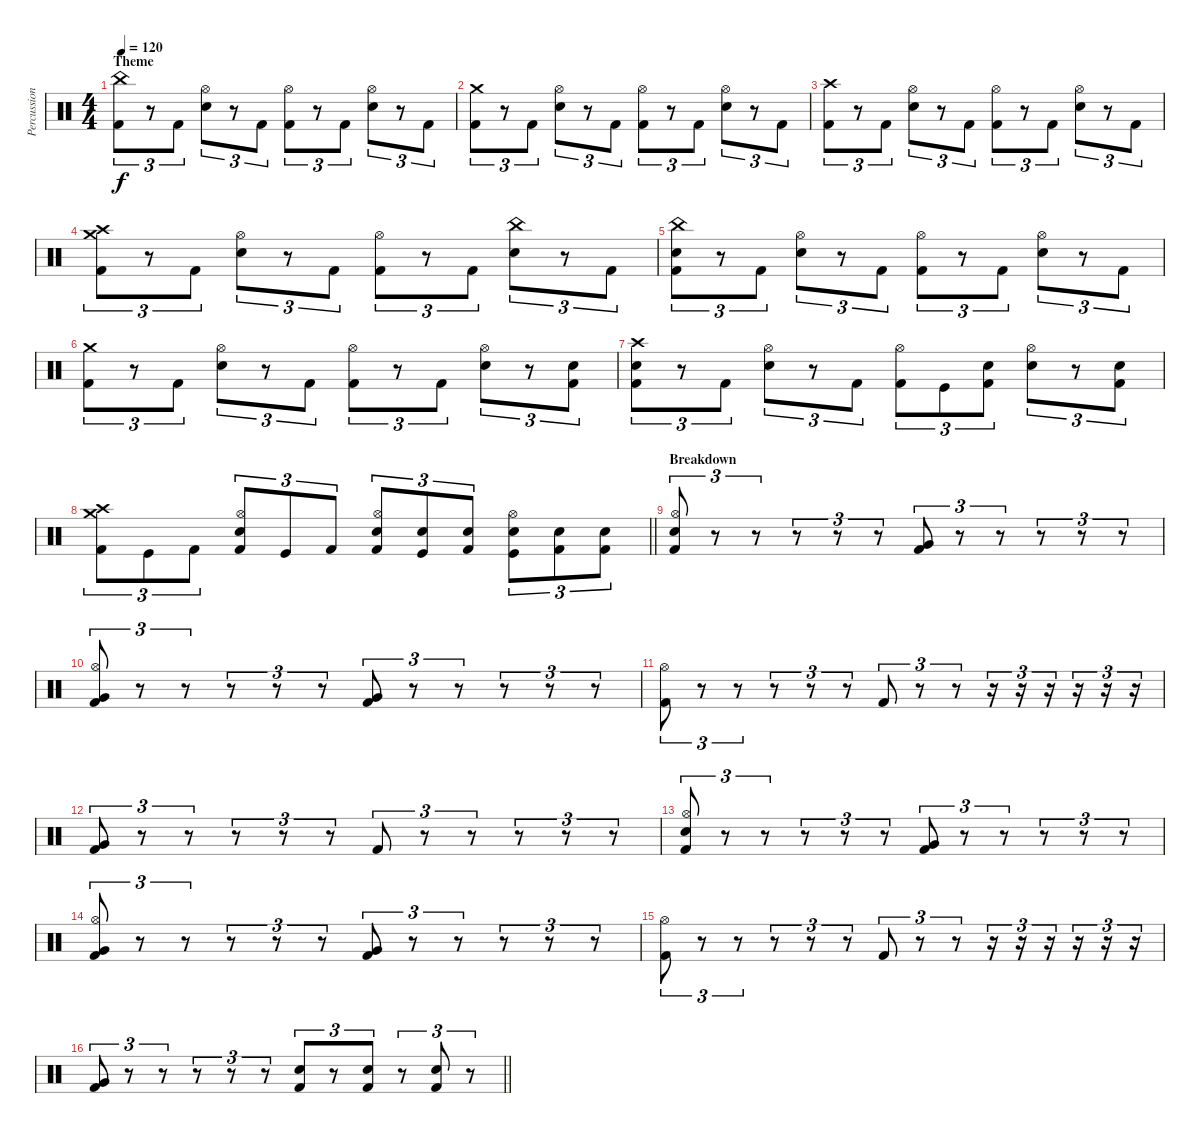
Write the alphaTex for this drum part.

\track ("Percussion" "Percussion") {instrument percussion}
\staff {score}
\articulation defaults
\ts (4 4)
\section ("" "Theme")
\tempo 120
\clef neutral
\ks c
("China (hit)" "Kick (hit) 2").8{tu (3 2) dy f} r.8{tu (3 2)} "Kick (hit) 2".8{tu (3 2)} ("Hi-Hat (open)" "Snare (hit) 2").8{tu (3 2)} r.8{tu (3 2)} "Kick (hit) 2".8{tu (3 2)} ("Hi-Hat (open)" "Kick (hit) 2").8{tu (3 2)} r.8{tu (3 2)} "Kick (hit) 2".8{tu (3 2)} ("Hi-Hat (open)" "Snare (hit) 2").8{tu (3 2)} r.8{tu (3 2)} "Kick (hit) 2".8{tu (3 2)} |
("Crash medium (hit)" "Kick (hit) 2").8{tu (3 2)} r.8{tu (3 2)} "Kick (hit) 2".8{tu (3 2)} ("Hi-Hat (open)" "Snare (hit) 2").8{tu (3 2)} r.8{tu (3 2)} "Kick (hit) 2".8{tu (3 2)} ("Hi-Hat (open)" "Kick (hit) 2").8{tu (3 2)} r.8{tu (3 2)} "Kick (hit) 2".8{tu (3 2)} ("Hi-Hat (open)" "Snare (hit) 2").8{tu (3 2)} r.8{tu (3 2)} "Kick (hit) 2".8{tu (3 2)} |
("Crash high (hit)" "Kick (hit) 2").8{tu (3 2)} r.8{tu (3 2)} "Kick (hit) 2".8{tu (3 2)} ("Hi-Hat (open)" "Snare (hit) 2").8{tu (3 2)} r.8{tu (3 2)} "Kick (hit) 2".8{tu (3 2)} ("Hi-Hat (open)" "Kick (hit) 2").8{tu (3 2)} r.8{tu (3 2)} "Kick (hit) 2".8{tu (3 2)} ("Hi-Hat (open)" "Snare (hit) 2").8{tu (3 2)} r.8{tu (3 2)} "Kick (hit) 2".8{tu (3 2)} |
("Crash medium (hit)" "Crash high (hit)" "Kick (hit) 2").8{tu (3 2)} r.8{tu (3 2)} "Kick (hit) 2".8{tu (3 2)} ("Hi-Hat (open)" "Snare (hit) 2").8{tu (3 2)} r.8{tu (3 2)} "Kick (hit) 2".8{tu (3 2)} ("Hi-Hat (open)" "Kick (hit) 2").8{tu (3 2)} r.8{tu (3 2)} "Kick (hit) 2".8{tu (3 2)} ("China (hit)" "Snare (hit) 2").8{tu (3 2)} r.8{tu (3 2)} "Kick (hit) 2".8{tu (3 2)} |
("China (hit)" "Snare (hit) 2" "Kick (hit) 2").8{tu (3 2)} r.8{tu (3 2)} "Kick (hit) 2".8{tu (3 2)} ("Hi-Hat (open)" "Snare (hit) 2").8{tu (3 2)} r.8{tu (3 2)} "Kick (hit) 2".8{tu (3 2)} ("Hi-Hat (open)" "Kick (hit) 2").8{tu (3 2)} r.8{tu (3 2)} "Kick (hit) 2".8{tu (3 2)} ("Hi-Hat (open)" "Snare (hit) 2").8{tu (3 2)} r.8{tu (3 2)} "Kick (hit) 2".8{tu (3 2)} |
("Crash medium (hit)" "Kick (hit) 2").8{tu (3 2)} r.8{tu (3 2)} "Kick (hit) 2".8{tu (3 2)} ("Hi-Hat (open)" "Snare (hit) 2").8{tu (3 2)} r.8{tu (3 2)} "Kick (hit) 2".8{tu (3 2)} ("Hi-Hat (open)" "Kick (hit) 2").8{tu (3 2)} r.8{tu (3 2)} "Kick (hit) 2".8{tu (3 2)} ("Hi-Hat (open)" "Snare (hit) 2").8{tu (3 2)} r.8{tu (3 2)} ("Snare (hit) 2" "Kick (hit) 2").8{tu (3 2)} |
("Crash high (hit)" "Snare (hit) 2" "Kick (hit) 2").8{tu (3 2)} r.8{tu (3 2)} "Kick (hit) 2".8{tu (3 2)} ("Hi-Hat (open)" "Snare (hit) 2").8{tu (3 2)} r.8{tu (3 2)} "Kick (hit) 2".8{tu (3 2)} ("Hi-Hat (open)" "Kick (hit) 2").8{tu (3 2)} "Kick (hit)".8{tu (3 2)} ("Snare (hit) 2" "Kick (hit) 2").8{tu (3 2)} ("Hi-Hat (open)" "Snare (hit) 2").8{tu (3 2)} r.8{tu (3 2)} ("Snare (hit) 2" "Kick (hit) 2").8{tu (3 2)} |
\barLineRight lightlight
("Crash medium (hit)" "Crash high (hit)" "Kick (hit) 2").8{tu (3 2)} "Kick (hit)".8{tu (3 2)} "Kick (hit) 2".8{tu (3 2)} ("Hi-Hat (open)" "Snare (hit) 2" "Kick (hit) 2").8{tu (3 2)} "Kick (hit)".8{tu (3 2)} "Kick (hit) 2".8{tu (3 2)} ("Hi-Hat (open)" "Snare (hit) 2" "Kick (hit) 2").8{tu (3 2)} ("Snare (hit) 2" "Kick (hit)").8{tu (3 2)} ("Snare (hit) 2" "Kick (hit) 2").8{tu (3 2)} ("Hi-Hat (open)" "Snare (hit) 2" "Kick (hit)").8{tu (3 2)} ("Snare (hit) 2" "Kick (hit) 2").8{tu (3 2)} ("Snare (hit) 2" "Kick (hit) 2").8{tu (3 2)} |
\section ("" "Breakdown")
("Hi-Hat (open)" "Snare (hit) 2" "Kick (hit) 2").8{tu (3 2)} r.8{tu (3 2)} r.8{tu (3 2)} r.8{tu (3 2)} r.8{tu (3 2)} r.8{tu (3 2)} ("Very Low Tom (hit)" "Kick (hit) 2").8{tu (3 2)} r.8{tu (3 2)} r.8{tu (3 2)} r.8{tu (3 2)} r.8{tu (3 2)} r.8{tu (3 2)} |
("Hi-Hat (open)" "Very Low Tom (hit)" "Kick (hit) 2").8{tu (3 2)} r.8{tu (3 2)} r.8{tu (3 2)} r.8{tu (3 2)} r.8{tu (3 2)} r.8{tu (3 2)} ("Very Low Tom (hit)" "Kick (hit) 2").8{tu (3 2)} r.8{tu (3 2)} r.8{tu (3 2)} r.8{tu (3 2)} r.8{tu (3 2)} r.8{tu (3 2)} |
("Hi-Hat (open)" "Kick (hit) 2").8{tu (3 2)} r.8{tu (3 2)} r.8{tu (3 2)} r.8{tu (3 2)} r.8{tu (3 2)} r.8{tu (3 2)} "Kick (hit) 2".8{tu (3 2)} r.8{tu (3 2)} r.8{tu (3 2)} r.16{tu (3 2)} r.16{tu (3 2)} r.16{tu (3 2)} r.16{tu (3 2)} r.16{tu (3 2)} r.16{tu (3 2)} |
("Very Low Tom (hit)" "Kick (hit) 2").8{tu (3 2)} r.8{tu (3 2)} r.8{tu (3 2)} r.8{tu (3 2)} r.8{tu (3 2)} r.8{tu (3 2)} "Kick (hit) 2".8{tu (3 2)} r.8{tu (3 2)} r.8{tu (3 2)} r.8{tu (3 2)} r.8{tu (3 2)} r.8{tu (3 2)} |
("Hi-Hat (open)" "Snare (hit) 2" "Kick (hit) 2").8{tu (3 2)} r.8{tu (3 2)} r.8{tu (3 2)} r.8{tu (3 2)} r.8{tu (3 2)} r.8{tu (3 2)} ("Very Low Tom (hit)" "Kick (hit) 2").8{tu (3 2)} r.8{tu (3 2)} r.8{tu (3 2)} r.8{tu (3 2)} r.8{tu (3 2)} r.8{tu (3 2)} |
("Hi-Hat (open)" "Very Low Tom (hit)" "Kick (hit) 2").8{tu (3 2)} r.8{tu (3 2)} r.8{tu (3 2)} r.8{tu (3 2)} r.8{tu (3 2)} r.8{tu (3 2)} ("Very Low Tom (hit)" "Kick (hit) 2").8{tu (3 2)} r.8{tu (3 2)} r.8{tu (3 2)} r.8{tu (3 2)} r.8{tu (3 2)} r.8{tu (3 2)} |
("Hi-Hat (open)" "Kick (hit) 2").8{tu (3 2)} r.8{tu (3 2)} r.8{tu (3 2)} r.8{tu (3 2)} r.8{tu (3 2)} r.8{tu (3 2)} "Kick (hit) 2".8{tu (3 2)} r.8{tu (3 2)} r.8{tu (3 2)} r.16{tu (3 2)} r.16{tu (3 2)} r.16{tu (3 2)} r.16{tu (3 2)} r.16{tu (3 2)} r.16{tu (3 2)} |
\barLineRight lightlight
("Very Low Tom (hit)" "Kick (hit) 2").8{tu (3 2)} r.8{tu (3 2)} r.8{tu (3 2)} r.8{tu (3 2)} r.8{tu (3 2)} r.8{tu (3 2)} ("Snare (hit) 2" "Kick (hit) 2").8{tu (3 2)} r.8{tu (3 2)} ("Snare (hit) 2" "Kick (hit) 2").8{tu (3 2)} r.8{tu (3 2)} ("Snare (hit) 2" "Kick (hit) 2").8{tu (3 2)} r.8{tu (3 2)}
